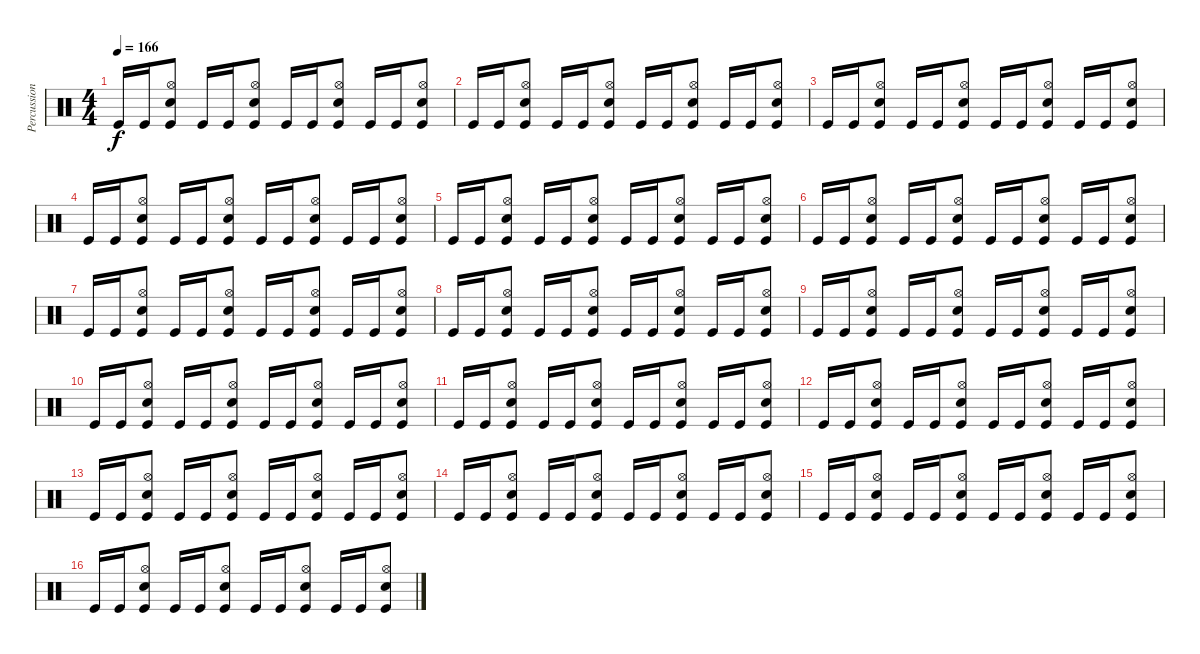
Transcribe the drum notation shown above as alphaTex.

\track ("Percussioni" "Percussion") {instrument percussion}
\staff {score}
\articulation defaults
\ts (4 4)
\tempo 166
\clef neutral
\ks c "Kick (hit)".16{dy f} "Kick (hit)".16
("Hi-Hat (open)" "Snare (hit) 2" "Kick (hit)").8 "Kick (hit)".16 "Kick (hit)".16 ("Hi-Hat (open)" "Snare (hit) 2" "Kick (hit)").8 "Kick (hit)".16 "Kick (hit)".16 ("Hi-Hat (open)" "Snare (hit) 2" "Kick (hit)").8 "Kick (hit)".16 "Kick (hit)".16 ("Hi-Hat (open)" "Snare (hit) 2" "Kick (hit)").8 |
"Kick (hit)".16 "Kick (hit)".16 ("Hi-Hat (open)" "Snare (hit) 2" "Kick (hit)").8 "Kick (hit)".16 "Kick (hit)".16 ("Hi-Hat (open)" "Snare (hit) 2" "Kick (hit)").8 "Kick (hit)".16 "Kick (hit)".16 ("Hi-Hat (open)" "Snare (hit) 2" "Kick (hit)").8 "Kick (hit)".16 "Kick (hit)".16 ("Hi-Hat (open)" "Snare (hit) 2" "Kick (hit)").8 |
"Kick (hit)".16 "Kick (hit)".16 ("Hi-Hat (open)" "Snare (hit) 2" "Kick (hit)").8 "Kick (hit)".16 "Kick (hit)".16 ("Hi-Hat (open)" "Snare (hit) 2" "Kick (hit)").8 "Kick (hit)".16 "Kick (hit)".16 ("Hi-Hat (open)" "Snare (hit) 2" "Kick (hit)").8 "Kick (hit)".16 "Kick (hit)".16 ("Hi-Hat (open)" "Snare (hit) 2" "Kick (hit)").8 |
"Kick (hit)".16 "Kick (hit)".16 ("Hi-Hat (open)" "Snare (hit) 2" "Kick (hit)").8 "Kick (hit)".16 "Kick (hit)".16 ("Hi-Hat (open)" "Snare (hit) 2" "Kick (hit)").8 "Kick (hit)".16 "Kick (hit)".16 ("Hi-Hat (open)" "Snare (hit) 2" "Kick (hit)").8 "Kick (hit)".16 "Kick (hit)".16 ("Hi-Hat (open)" "Snare (hit) 2" "Kick (hit)").8 |
"Kick (hit)".16 "Kick (hit)".16 ("Hi-Hat (open)" "Snare (hit) 2" "Kick (hit)").8 "Kick (hit)".16 "Kick (hit)".16 ("Hi-Hat (open)" "Snare (hit) 2" "Kick (hit)").8 "Kick (hit)".16 "Kick (hit)".16 ("Hi-Hat (open)" "Snare (hit) 2" "Kick (hit)").8 "Kick (hit)".16 "Kick (hit)".16 ("Hi-Hat (open)" "Snare (hit) 2" "Kick (hit)").8 |
"Kick (hit)".16 "Kick (hit)".16 ("Hi-Hat (open)" "Snare (hit) 2" "Kick (hit)").8 "Kick (hit)".16 "Kick (hit)".16 ("Hi-Hat (open)" "Snare (hit) 2" "Kick (hit)").8 "Kick (hit)".16 "Kick (hit)".16 ("Hi-Hat (open)" "Snare (hit) 2" "Kick (hit)").8 "Kick (hit)".16 "Kick (hit)".16 ("Hi-Hat (open)" "Snare (hit) 2" "Kick (hit)").8 |
"Kick (hit)".16 "Kick (hit)".16 ("Hi-Hat (open)" "Snare (hit) 2" "Kick (hit)").8 "Kick (hit)".16 "Kick (hit)".16 ("Hi-Hat (open)" "Snare (hit) 2" "Kick (hit)").8 "Kick (hit)".16 "Kick (hit)".16 ("Hi-Hat (open)" "Snare (hit) 2" "Kick (hit)").8 "Kick (hit)".16 "Kick (hit)".16 ("Hi-Hat (open)" "Snare (hit) 2" "Kick (hit)").8 |
"Kick (hit)".16 "Kick (hit)".16 ("Hi-Hat (open)" "Snare (hit) 2" "Kick (hit)").8 "Kick (hit)".16 "Kick (hit)".16 ("Hi-Hat (open)" "Snare (hit) 2" "Kick (hit)").8 "Kick (hit)".16 "Kick (hit)".16 ("Hi-Hat (open)" "Snare (hit) 2" "Kick (hit)").8 "Kick (hit)".16 "Kick (hit)".16 ("Hi-Hat (open)" "Snare (hit) 2" "Kick (hit)").8 |
"Kick (hit)".16 "Kick (hit)".16 ("Hi-Hat (open)" "Snare (hit) 2" "Kick (hit)").8 "Kick (hit)".16 "Kick (hit)".16 ("Hi-Hat (open)" "Snare (hit) 2" "Kick (hit)").8 "Kick (hit)".16 "Kick (hit)".16 ("Hi-Hat (open)" "Snare (hit) 2" "Kick (hit)").8 "Kick (hit)".16 "Kick (hit)".16 ("Hi-Hat (open)" "Snare (hit) 2" "Kick (hit)").8 |
"Kick (hit)".16 "Kick (hit)".16 ("Hi-Hat (open)" "Snare (hit) 2" "Kick (hit)").8 "Kick (hit)".16 "Kick (hit)".16 ("Hi-Hat (open)" "Snare (hit) 2" "Kick (hit)").8 "Kick (hit)".16 "Kick (hit)".16 ("Hi-Hat (open)" "Snare (hit) 2" "Kick (hit)").8 "Kick (hit)".16 "Kick (hit)".16 ("Hi-Hat (open)" "Snare (hit) 2" "Kick (hit)").8 |
"Kick (hit)".16 "Kick (hit)".16 ("Hi-Hat (open)" "Snare (hit) 2" "Kick (hit)").8 "Kick (hit)".16 "Kick (hit)".16 ("Hi-Hat (open)" "Snare (hit) 2" "Kick (hit)").8 "Kick (hit)".16 "Kick (hit)".16 ("Hi-Hat (open)" "Snare (hit) 2" "Kick (hit)").8 "Kick (hit)".16 "Kick (hit)".16 ("Hi-Hat (open)" "Snare (hit) 2" "Kick (hit)").8 |
"Kick (hit)".16 "Kick (hit)".16 ("Hi-Hat (open)" "Snare (hit) 2" "Kick (hit)").8 "Kick (hit)".16 "Kick (hit)".16 ("Hi-Hat (open)" "Snare (hit) 2" "Kick (hit)").8 "Kick (hit)".16 "Kick (hit)".16 ("Hi-Hat (open)" "Snare (hit) 2" "Kick (hit)").8 "Kick (hit)".16 "Kick (hit)".16 ("Hi-Hat (open)" "Snare (hit) 2" "Kick (hit)").8 |
"Kick (hit)".16 "Kick (hit)".16 ("Hi-Hat (open)" "Snare (hit) 2" "Kick (hit)").8 "Kick (hit)".16 "Kick (hit)".16 ("Hi-Hat (open)" "Snare (hit) 2" "Kick (hit)").8 "Kick (hit)".16 "Kick (hit)".16 ("Hi-Hat (open)" "Snare (hit) 2" "Kick (hit)").8 "Kick (hit)".16 "Kick (hit)".16 ("Hi-Hat (open)" "Snare (hit) 2" "Kick (hit)").8 |
"Kick (hit)".16 "Kick (hit)".16 ("Hi-Hat (open)" "Snare (hit) 2" "Kick (hit)").8 "Kick (hit)".16 "Kick (hit)".16 ("Hi-Hat (open)" "Snare (hit) 2" "Kick (hit)").8 "Kick (hit)".16 "Kick (hit)".16 ("Hi-Hat (open)" "Snare (hit) 2" "Kick (hit)").8 "Kick (hit)".16 "Kick (hit)".16 ("Hi-Hat (open)" "Snare (hit) 2" "Kick (hit)").8 |
"Kick (hit)".16 "Kick (hit)".16 ("Hi-Hat (open)" "Snare (hit) 2" "Kick (hit)").8 "Kick (hit)".16 "Kick (hit)".16 ("Hi-Hat (open)" "Snare (hit) 2" "Kick (hit)").8 "Kick (hit)".16 "Kick (hit)".16 ("Hi-Hat (open)" "Snare (hit) 2" "Kick (hit)").8 "Kick (hit)".16 "Kick (hit)".16 ("Hi-Hat (open)" "Snare (hit) 2" "Kick (hit)").8 |
"Kick (hit)".16 "Kick (hit)".16 ("Hi-Hat (open)" "Snare (hit) 2" "Kick (hit)").8 "Kick (hit)".16 "Kick (hit)".16 ("Hi-Hat (open)" "Snare (hit) 2" "Kick (hit)").8 "Kick (hit)".16 "Kick (hit)".16 ("Hi-Hat (open)" "Snare (hit) 2" "Kick (hit)").8 "Kick (hit)".16 "Kick (hit)".16 ("Hi-Hat (open)" "Snare (hit) 2" "Kick (hit)").8
